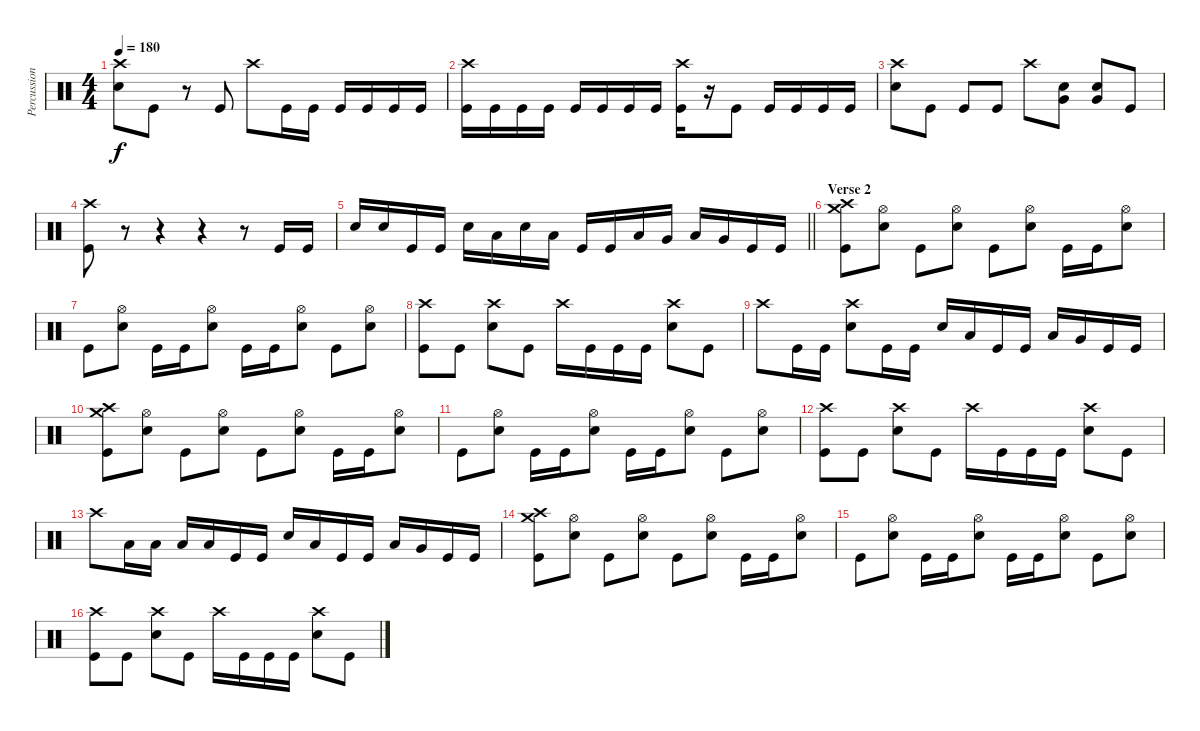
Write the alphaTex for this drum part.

\track ("Percussion" "Percussion") {instrument percussion}
\staff {score}
\articulation defaults
\ts (4 4)
\tempo 180
\clef neutral
\ks c
("Crash high (hit)" "Electric Snare (hit)").8{dy f} "Kick (hit)".8 r.8 "Kick (hit)".8 "Crash high (hit)".8 "Kick (hit)".16 "Kick (hit)".16 "Kick (hit)".16 "Kick (hit)".16 "Kick (hit)".16 "Kick (hit)".16 |
("Crash high (hit)" "Kick (hit)").16 "Kick (hit)".16 "Kick (hit)".16 "Kick (hit)".16 "Kick (hit)".16 "Kick (hit)".16 "Kick (hit)".16 "Kick (hit)".16 ("Crash high (hit)" "Kick (hit)").16 r.16 "Kick (hit)".8 "Kick (hit)".16 "Kick (hit)".16 "Kick (hit)".16 "Kick (hit)".16 |
("Crash high (hit)" "Electric Snare (hit)").8 "Kick (hit)".8 "Kick (hit)".8 "Kick (hit)".8 "Crash high (hit)".8 ("Very Low Tom (hit)" "Electric Snare (hit)").8 ("Very Low Tom (hit)" "Electric Snare (hit)").8 "Kick (hit)".8 |
("Crash high (hit)" "Kick (hit)").8 r.8{volume 0} r.4{volume 16} r.4 r.8 "Kick (hit)".16 "Kick (hit)".16 |
\barLineRight lightlight "Electric Snare (hit)".16 "Electric Snare (hit)".16 "Kick (hit)".16 "Kick (hit)".16 "Electric Snare (hit)".16 "Low Tom (hit)".16 "Electric Snare (hit)".16 "Low Tom (hit)".16 "Kick (hit)".16 "Kick (hit)".16 "Low Tom (hit)".16 "Very Low Tom (hit)".16 "Low Tom (hit)".16 "Very Low Tom (hit)".16 "Kick (hit)".16 "Kick (hit)".16
|
\section ("" "Verse 2")
("Crash medium (hit)" "Crash high (hit)" "Kick (hit)").8 ("Hi-Hat (open)" "Electric Snare (hit)").8 "Kick (hit)".8 ("Hi-Hat (open)" "Electric Snare (hit)").8 "Kick (hit)".8 ("Hi-Hat (open)" "Electric Snare (hit)").8 "Kick (hit)".16 "Kick (hit)".16 ("Hi-Hat (open)" "Electric Snare (hit)").8 |
"Kick (hit)".8 ("Hi-Hat (open)" "Electric Snare (hit)").8 "Kick (hit)".16 "Kick (hit)".16 ("Hi-Hat (open)" "Electric Snare (hit)").8 "Kick (hit)".16 "Kick (hit)".16 ("Hi-Hat (open)" "Electric Snare (hit)").8 "Kick (hit)".8 ("Hi-Hat (open)" "Electric Snare (hit)").8 |
("Crash high (hit)" "Kick (hit)").8 "Kick (hit)".8 ("Crash high (hit)" "Electric Snare (hit)").8 "Kick (hit)".8 "Crash high (hit)".16 "Kick (hit)".16 "Kick (hit)".16 "Kick (hit)".16 ("Crash high (hit)" "Electric Snare (hit)").8 "Kick (hit)".8 |
"Crash high (hit)".8 "Kick (hit)".16 "Kick (hit)".16 ("Crash high (hit)" "Electric Snare (hit)").8 "Kick (hit)".16 "Kick (hit)".16 "Electric Snare (hit)".16 "Low Tom (hit)".16 "Kick (hit)".16 "Kick (hit)".16 "Low Tom (hit)".16 "Very Low Tom (hit)".16 "Kick (hit)".16 "Kick (hit)".16 |
("Crash medium (hit)" "Crash high (hit)" "Kick (hit)").8 ("Hi-Hat (open)" "Electric Snare (hit)").8 "Kick (hit)".8 ("Hi-Hat (open)" "Electric Snare (hit)").8 "Kick (hit)".8 ("Hi-Hat (open)" "Electric Snare (hit)").8 "Kick (hit)".16 "Kick (hit)".16 ("Hi-Hat (open)" "Electric Snare (hit)").8 |
"Kick (hit)".8 ("Hi-Hat (open)" "Electric Snare (hit)").8 "Kick (hit)".16 "Kick (hit)".16 ("Hi-Hat (open)" "Electric Snare (hit)").8 "Kick (hit)".16 "Kick (hit)".16 ("Hi-Hat (open)" "Electric Snare (hit)").8 "Kick (hit)".8 ("Hi-Hat (open)" "Electric Snare (hit)").8 |
("Crash high (hit)" "Kick (hit)").8 "Kick (hit)".8 ("Crash high (hit)" "Electric Snare (hit)").8 "Kick (hit)".8 "Crash high (hit)".16 "Kick (hit)".16 "Kick (hit)".16 "Kick (hit)".16 ("Crash high (hit)" "Electric Snare (hit)").8 "Kick (hit)".8 |
"Crash high (hit)".8 "Low Tom (hit)".16 "Low Tom (hit)".16 "Low Tom (hit)".16 "Low Tom (hit)".16 "Kick (hit)".16 "Kick (hit)".16 "Electric Snare (hit)".16 "Low Tom (hit)".16 "Kick (hit)".16 "Kick (hit)".16 "Low Tom (hit)".16 "Very Low Tom (hit)".16 "Kick (hit)".16 "Kick (hit)".16 |
("Crash medium (hit)" "Crash high (hit)" "Kick (hit)").8 ("Hi-Hat (open)" "Electric Snare (hit)").8 "Kick (hit)".8 ("Hi-Hat (open)" "Electric Snare (hit)").8 "Kick (hit)".8 ("Hi-Hat (open)" "Electric Snare (hit)").8 "Kick (hit)".16 "Kick (hit)".16 ("Hi-Hat (open)" "Electric Snare (hit)").8 |
"Kick (hit)".8 ("Hi-Hat (open)" "Electric Snare (hit)").8 "Kick (hit)".16 "Kick (hit)".16 ("Hi-Hat (open)" "Electric Snare (hit)").8 "Kick (hit)".16 "Kick (hit)".16 ("Hi-Hat (open)" "Electric Snare (hit)").8 "Kick (hit)".8 ("Hi-Hat (open)" "Electric Snare (hit)").8 |
("Crash high (hit)" "Kick (hit)").8 "Kick (hit)".8 ("Crash high (hit)" "Electric Snare (hit)").8 "Kick (hit)".8 "Crash high (hit)".16 "Kick (hit)".16 "Kick (hit)".16 "Kick (hit)".16 ("Crash high (hit)" "Electric Snare (hit)").8 "Kick (hit)".8
